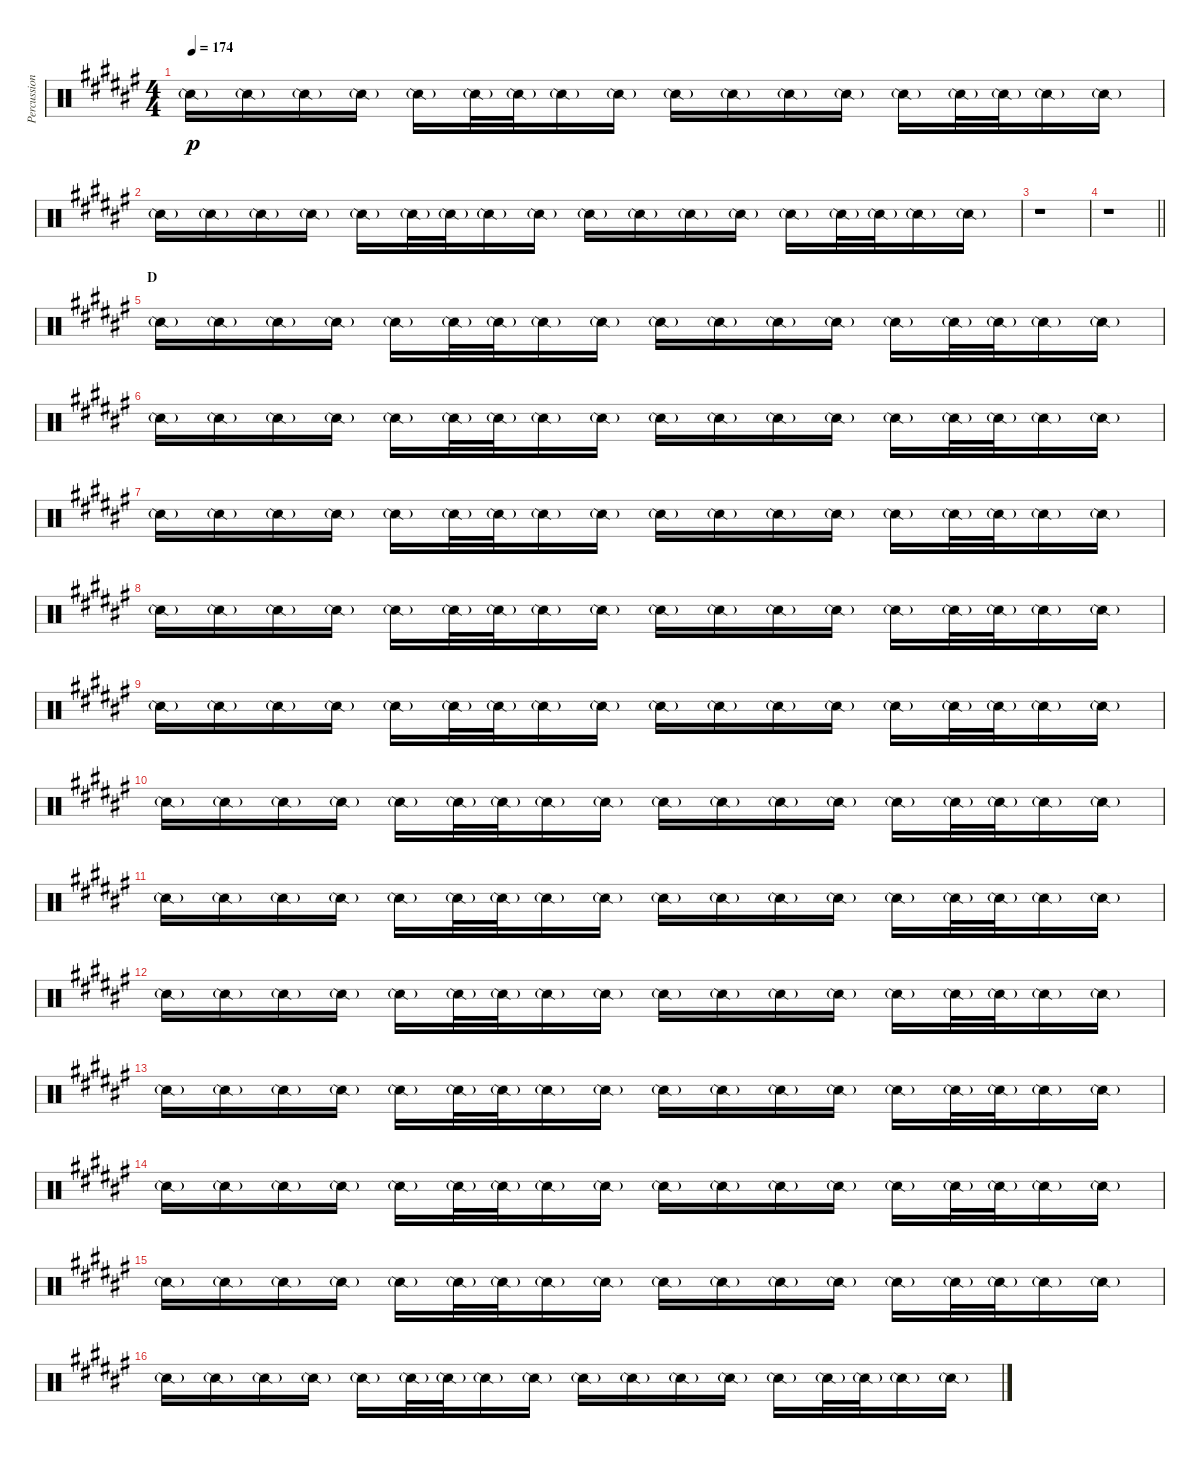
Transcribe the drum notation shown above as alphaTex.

\track ("Percussion I" "Percussion") {instrument percussion}
\staff {score}
\articulation defaults
\ts (4 4)
\tempo 174
\clef neutral
\ks f# "Snare (side stick) 2"{g}.16{dy p} "Snare (side stick) 2"{g}.16 "Snare (side stick) 2"{g}.16 "Snare (side stick) 2"{g}.16 "Snare (side stick) 2"{g}.16 "Snare (side stick) 2"{g}.32 "Snare (side stick) 2"{g}.32 "Snare (side stick) 2"{g}.16 "Snare (side stick) 2"{g}.16 "Snare (side stick) 2"{g}.16 "Snare (side stick) 2"{g}.16 "Snare (side stick) 2"{g}.16 "Snare (side stick) 2"{g}.16 "Snare (side stick) 2"{g}.16 "Snare (side stick) 2"{g}.32 "Snare (side stick) 2"{g}.32 "Snare (side stick) 2"{g}.16 "Snare (side stick) 2"{g}.16
|
"Snare (side stick) 2"{g}.16 "Snare (side stick) 2"{g}.16 "Snare (side stick) 2"{g}.16 "Snare (side stick) 2"{g}.16 "Snare (side stick) 2"{g}.16 "Snare (side stick) 2"{g}.32 "Snare (side stick) 2"{g}.32 "Snare (side stick) 2"{g}.16 "Snare (side stick) 2"{g}.16 "Snare (side stick) 2"{g}.16 "Snare (side stick) 2"{g}.16 "Snare (side stick) 2"{g}.16 "Snare (side stick) 2"{g}.16 "Snare (side stick) 2"{g}.16 "Snare (side stick) 2"{g}.32 "Snare (side stick) 2"{g}.32 "Snare (side stick) 2"{g}.16 "Snare (side stick) 2"{g}.16 |
r.1 |
\barLineRight lightlight
r.1 |
\section ("" "D")
"Snare (side stick) 2"{g}.16 "Snare (side stick) 2"{g}.16 "Snare (side stick) 2"{g}.16 "Snare (side stick) 2"{g}.16 "Snare (side stick) 2"{g}.16 "Snare (side stick) 2"{g}.32 "Snare (side stick) 2"{g}.32 "Snare (side stick) 2"{g}.16 "Snare (side stick) 2"{g}.16 "Snare (side stick) 2"{g}.16 "Snare (side stick) 2"{g}.16 "Snare (side stick) 2"{g}.16 "Snare (side stick) 2"{g}.16 "Snare (side stick) 2"{g}.16 "Snare (side stick) 2"{g}.32 "Snare (side stick) 2"{g}.32 "Snare (side stick) 2"{g}.16 "Snare (side stick) 2"{g}.16 |
"Snare (side stick) 2"{g}.16 "Snare (side stick) 2"{g}.16 "Snare (side stick) 2"{g}.16 "Snare (side stick) 2"{g}.16 "Snare (side stick) 2"{g}.16 "Snare (side stick) 2"{g}.32 "Snare (side stick) 2"{g}.32 "Snare (side stick) 2"{g}.16 "Snare (side stick) 2"{g}.16 "Snare (side stick) 2"{g}.16 "Snare (side stick) 2"{g}.16 "Snare (side stick) 2"{g}.16 "Snare (side stick) 2"{g}.16 "Snare (side stick) 2"{g}.16 "Snare (side stick) 2"{g}.32 "Snare (side stick) 2"{g}.32 "Snare (side stick) 2"{g}.16 "Snare (side stick) 2"{g}.16 |
"Snare (side stick) 2"{g}.16 "Snare (side stick) 2"{g}.16 "Snare (side stick) 2"{g}.16 "Snare (side stick) 2"{g}.16 "Snare (side stick) 2"{g}.16 "Snare (side stick) 2"{g}.32 "Snare (side stick) 2"{g}.32 "Snare (side stick) 2"{g}.16 "Snare (side stick) 2"{g}.16 "Snare (side stick) 2"{g}.16 "Snare (side stick) 2"{g}.16 "Snare (side stick) 2"{g}.16 "Snare (side stick) 2"{g}.16 "Snare (side stick) 2"{g}.16 "Snare (side stick) 2"{g}.32 "Snare (side stick) 2"{g}.32 "Snare (side stick) 2"{g}.16 "Snare (side stick) 2"{g}.16 |
"Snare (side stick) 2"{g}.16 "Snare (side stick) 2"{g}.16 "Snare (side stick) 2"{g}.16 "Snare (side stick) 2"{g}.16 "Snare (side stick) 2"{g}.16 "Snare (side stick) 2"{g}.32 "Snare (side stick) 2"{g}.32 "Snare (side stick) 2"{g}.16 "Snare (side stick) 2"{g}.16 "Snare (side stick) 2"{g}.16 "Snare (side stick) 2"{g}.16 "Snare (side stick) 2"{g}.16 "Snare (side stick) 2"{g}.16 "Snare (side stick) 2"{g}.16 "Snare (side stick) 2"{g}.32 "Snare (side stick) 2"{g}.32 "Snare (side stick) 2"{g}.16 "Snare (side stick) 2"{g}.16 |
"Snare (side stick) 2"{g}.16 "Snare (side stick) 2"{g}.16 "Snare (side stick) 2"{g}.16 "Snare (side stick) 2"{g}.16 "Snare (side stick) 2"{g}.16 "Snare (side stick) 2"{g}.32 "Snare (side stick) 2"{g}.32 "Snare (side stick) 2"{g}.16 "Snare (side stick) 2"{g}.16 "Snare (side stick) 2"{g}.16 "Snare (side stick) 2"{g}.16 "Snare (side stick) 2"{g}.16 "Snare (side stick) 2"{g}.16 "Snare (side stick) 2"{g}.16 "Snare (side stick) 2"{g}.32 "Snare (side stick) 2"{g}.32 "Snare (side stick) 2"{g}.16 "Snare (side stick) 2"{g}.16 |
"Snare (side stick) 2"{g}.16 "Snare (side stick) 2"{g}.16 "Snare (side stick) 2"{g}.16 "Snare (side stick) 2"{g}.16 "Snare (side stick) 2"{g}.16 "Snare (side stick) 2"{g}.32 "Snare (side stick) 2"{g}.32 "Snare (side stick) 2"{g}.16 "Snare (side stick) 2"{g}.16 "Snare (side stick) 2"{g}.16 "Snare (side stick) 2"{g}.16 "Snare (side stick) 2"{g}.16 "Snare (side stick) 2"{g}.16 "Snare (side stick) 2"{g}.16 "Snare (side stick) 2"{g}.32 "Snare (side stick) 2"{g}.32 "Snare (side stick) 2"{g}.16 "Snare (side stick) 2"{g}.16 |
"Snare (side stick) 2"{g}.16 "Snare (side stick) 2"{g}.16 "Snare (side stick) 2"{g}.16 "Snare (side stick) 2"{g}.16 "Snare (side stick) 2"{g}.16 "Snare (side stick) 2"{g}.32 "Snare (side stick) 2"{g}.32 "Snare (side stick) 2"{g}.16 "Snare (side stick) 2"{g}.16 "Snare (side stick) 2"{g}.16 "Snare (side stick) 2"{g}.16 "Snare (side stick) 2"{g}.16 "Snare (side stick) 2"{g}.16 "Snare (side stick) 2"{g}.16 "Snare (side stick) 2"{g}.32 "Snare (side stick) 2"{g}.32 "Snare (side stick) 2"{g}.16 "Snare (side stick) 2"{g}.16 |
"Snare (side stick) 2"{g}.16 "Snare (side stick) 2"{g}.16 "Snare (side stick) 2"{g}.16 "Snare (side stick) 2"{g}.16 "Snare (side stick) 2"{g}.16 "Snare (side stick) 2"{g}.32 "Snare (side stick) 2"{g}.32 "Snare (side stick) 2"{g}.16 "Snare (side stick) 2"{g}.16 "Snare (side stick) 2"{g}.16 "Snare (side stick) 2"{g}.16 "Snare (side stick) 2"{g}.16 "Snare (side stick) 2"{g}.16 "Snare (side stick) 2"{g}.16 "Snare (side stick) 2"{g}.32 "Snare (side stick) 2"{g}.32 "Snare (side stick) 2"{g}.16 "Snare (side stick) 2"{g}.16 |
"Snare (side stick) 2"{g}.16 "Snare (side stick) 2"{g}.16 "Snare (side stick) 2"{g}.16 "Snare (side stick) 2"{g}.16 "Snare (side stick) 2"{g}.16 "Snare (side stick) 2"{g}.32 "Snare (side stick) 2"{g}.32 "Snare (side stick) 2"{g}.16 "Snare (side stick) 2"{g}.16 "Snare (side stick) 2"{g}.16 "Snare (side stick) 2"{g}.16 "Snare (side stick) 2"{g}.16 "Snare (side stick) 2"{g}.16 "Snare (side stick) 2"{g}.16 "Snare (side stick) 2"{g}.32 "Snare (side stick) 2"{g}.32 "Snare (side stick) 2"{g}.16 "Snare (side stick) 2"{g}.16 |
"Snare (side stick) 2"{g}.16 "Snare (side stick) 2"{g}.16 "Snare (side stick) 2"{g}.16 "Snare (side stick) 2"{g}.16 "Snare (side stick) 2"{g}.16 "Snare (side stick) 2"{g}.32 "Snare (side stick) 2"{g}.32 "Snare (side stick) 2"{g}.16 "Snare (side stick) 2"{g}.16 "Snare (side stick) 2"{g}.16 "Snare (side stick) 2"{g}.16 "Snare (side stick) 2"{g}.16 "Snare (side stick) 2"{g}.16 "Snare (side stick) 2"{g}.16 "Snare (side stick) 2"{g}.32 "Snare (side stick) 2"{g}.32 "Snare (side stick) 2"{g}.16 "Snare (side stick) 2"{g}.16 |
"Snare (side stick) 2"{g}.16 "Snare (side stick) 2"{g}.16 "Snare (side stick) 2"{g}.16 "Snare (side stick) 2"{g}.16 "Snare (side stick) 2"{g}.16 "Snare (side stick) 2"{g}.32 "Snare (side stick) 2"{g}.32 "Snare (side stick) 2"{g}.16 "Snare (side stick) 2"{g}.16 "Snare (side stick) 2"{g}.16 "Snare (side stick) 2"{g}.16 "Snare (side stick) 2"{g}.16 "Snare (side stick) 2"{g}.16 "Snare (side stick) 2"{g}.16 "Snare (side stick) 2"{g}.32 "Snare (side stick) 2"{g}.32 "Snare (side stick) 2"{g}.16 "Snare (side stick) 2"{g}.16 |
"Snare (side stick) 2"{g}.16 "Snare (side stick) 2"{g}.16 "Snare (side stick) 2"{g}.16 "Snare (side stick) 2"{g}.16 "Snare (side stick) 2"{g}.16 "Snare (side stick) 2"{g}.32 "Snare (side stick) 2"{g}.32 "Snare (side stick) 2"{g}.16 "Snare (side stick) 2"{g}.16 "Snare (side stick) 2"{g}.16 "Snare (side stick) 2"{g}.16 "Snare (side stick) 2"{g}.16 "Snare (side stick) 2"{g}.16 "Snare (side stick) 2"{g}.16 "Snare (side stick) 2"{g}.32 "Snare (side stick) 2"{g}.32 "Snare (side stick) 2"{g}.16 "Snare (side stick) 2"{g}.16
